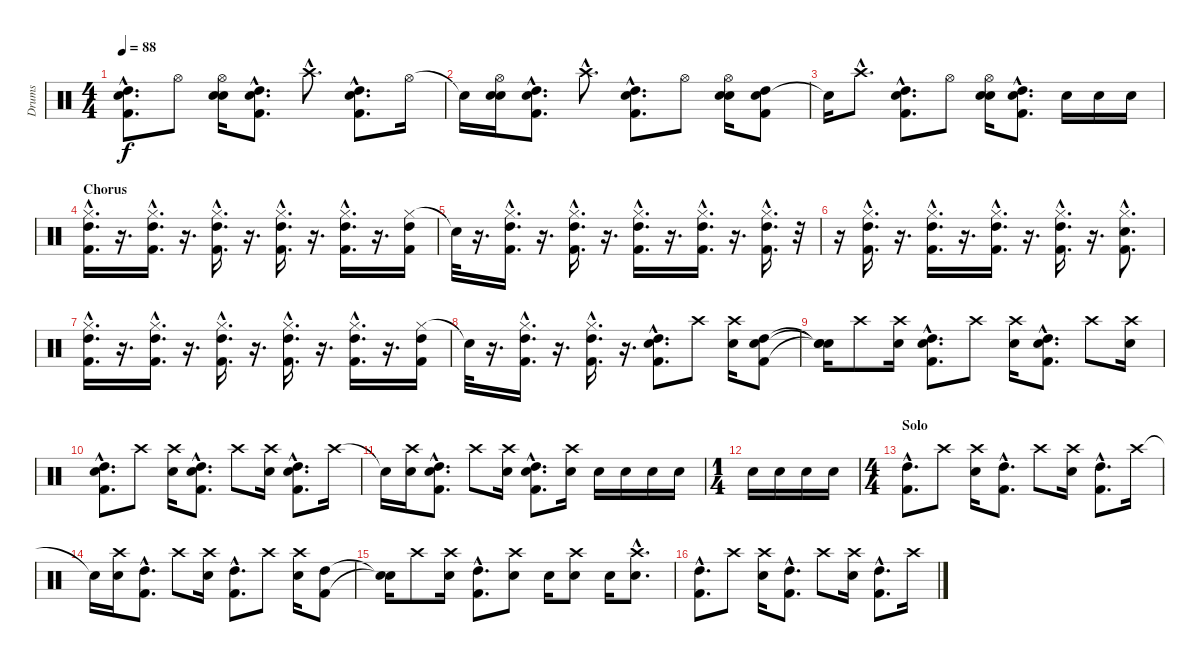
\track ("Drums" "Drums") {instrument percussion}
\staff {score}
\articulation defaults
\ts (4 4)
\tempo 88
\clef neutral
\ks c
("Electric Snare (hit)"{hac} "High Tom (hit)"{hac} "Kick (hit) 2"{hac}).8{d dy f} "Hi-Hat (open)".8 ("Hi-Hat (open)" "Electric Snare (hit)" "Electric Snare (hit)").16 ("Electric Snare (hit)"{hac} "High Tom (hit)"{hac} "Kick (hit) 2"{hac}).8{d} "Crash high (hit)"{hac}.8{d} ("Electric Snare (hit)"{hac} "High Tom (hit)"{hac} "Kick (hit) 2"{hac}).8{d} "Hi-Hat (open)".16 |
"Snare (hit)"{t}.16 ("Hi-Hat (open)" "Electric Snare (hit)" "Electric Snare (hit)").16 ("Electric Snare (hit)"{hac} "High Tom (hit)"{hac} "Kick (hit) 2"{hac}).8{d} "Crash high (hit)"{hac}.8{d} ("Electric Snare (hit)"{hac} "High Tom (hit)"{hac} "Kick (hit) 2"{hac}).8{d} "Hi-Hat (open)".8 ("Hi-Hat (open)" "Electric Snare (hit)" "Electric Snare (hit)").16 ("Electric Snare (hit)" "High Tom (hit)" "Kick (hit) 2").8 |
"Snare (hit)"{t}.16 "Crash high (hit)"{hac}.8{d} ("Electric Snare (hit)"{hac} "High Tom (hit)"{hac} "Kick (hit) 2"{hac}).8{d} "Hi-Hat (open)".8 ("Hi-Hat (open)" "Electric Snare (hit)" "Electric Snare (hit)").16 ("Electric Snare (hit)"{hac} "High Tom (hit)"{hac} "Kick (hit) 2"{hac}).8{d} "Electric Snare (hit)".16 "Electric Snare (hit)".16 "Electric Snare (hit)".16 |
\section ("" "Chorus")
("Hi-Hat (closed)"{hac} "High Tom (hit)"{hac} "Kick (hit) 2"{hac}).16{d} r.16{d} ("Hi-Hat (closed)"{hac} "High Tom (hit)"{hac} "Kick (hit) 2"{hac}).16{d} r.16{d} ("Hi-Hat (closed)"{hac} "High Tom (hit)"{hac} "Kick (hit) 2"{hac}).16{d} r.16{d} ("Hi-Hat (closed)"{hac} "High Tom (hit)"{hac} "Kick (hit) 2"{hac}).16{d} r.16{d} ("Hi-Hat (closed)"{hac} "High Tom (hit)"{hac} "Kick (hit) 2"{hac}).16{d} r.16{d} ("Hi-Hat (closed)" "High Tom (hit)" "Kick (hit) 2").16 |
"Snare (hit)"{t}.32 r.16{d} ("Hi-Hat (closed)"{hac} "High Tom (hit)"{hac} "Kick (hit) 2"{hac}).16{d} r.16{d} ("Hi-Hat (closed)"{hac} "High Tom (hit)"{hac} "Kick (hit) 2"{hac}).16{d} r.16{d} ("Hi-Hat (closed)"{hac} "High Tom (hit)"{hac} "Kick (hit) 2"{hac}).16{d} r.16{d} ("Hi-Hat (closed)"{hac} "High Tom (hit)"{hac} "Kick (hit) 2"{hac}).16{d} r.16{d} ("Hi-Hat (closed)"{hac} "High Tom (hit)"{hac} "Kick (hit) 2"{hac}).16{d} r.32 |
r.16 ("Hi-Hat (closed)"{hac} "High Tom (hit)"{hac} "Kick (hit) 2"{hac}).16{d} r.16{d} ("Hi-Hat (closed)"{hac} "High Tom (hit)"{hac} "Kick (hit) 2"{hac}).16{d} r.16{d} ("Hi-Hat (closed)"{hac} "High Tom (hit)"{hac} "Kick (hit) 2"{hac}).16{d} r.16{d} ("Hi-Hat (closed)"{hac} "High Tom (hit)"{hac} "Kick (hit) 2"{hac}).16{d} r.16{d} ("Hi-Hat (closed)"{hac} "Electric Snare (hit)"{hac} "Kick (hit) 2"{hac}).8{d} |
("Hi-Hat (closed)"{hac} "High Tom (hit)"{hac} "Kick (hit) 2"{hac}).16{d} r.16{d} ("Hi-Hat (closed)"{hac} "High Tom (hit)"{hac} "Kick (hit) 2"{hac}).16{d} r.16{d} ("Hi-Hat (closed)"{hac} "High Tom (hit)"{hac} "Kick (hit) 2"{hac}).16{d} r.16{d} ("Hi-Hat (closed)"{hac} "High Tom (hit)"{hac} "Kick (hit) 2"{hac}).16{d} r.16{d} ("Hi-Hat (closed)"{hac} "High Tom (hit)"{hac} "Kick (hit) 2"{hac}).16{d} r.16{d} ("Hi-Hat (closed)" "High Tom (hit)" "Kick (hit) 2").16 |
"Snare (hit)"{t}.32 r.16{d} ("Hi-Hat (closed)"{hac} "High Tom (hit)"{hac} "Kick (hit) 2"{hac}).16{d} r.16{d} ("Hi-Hat (closed)"{hac} "High Tom (hit)"{hac} "Kick (hit) 2"{hac}).16{d} r.16{d} ("High Tom (hit)"{hac} "Electric Snare (hit)"{hac} "Kick (hit) 2"{hac}).8{d} "Crash high (hit)".8 ("Crash high (hit)" "Electric Snare (hit)").16 ("High Tom (hit)" "Electric Snare (hit)" "Kick (hit) 2").8 |
("Snare (hit)"{t} "Snare (hit)"{t} "Snare (hit)"{t}).16 "Crash high (hit)".8 ("Crash high (hit)" "Electric Snare (hit)").16 ("High Tom (hit)"{hac} "Electric Snare (hit)"{hac} "Kick (hit) 2"{hac}).8{d} "Crash high (hit)".8 ("Crash high (hit)" "Electric Snare (hit)").16 ("High Tom (hit)"{hac} "Electric Snare (hit)"{hac} "Kick (hit) 2"{hac}).8{d} "Crash high (hit)".8 ("Crash high (hit)" "Electric Snare (hit)").16 |
("High Tom (hit)"{hac} "Electric Snare (hit)"{hac} "Kick (hit) 2"{hac}).8{d} "Crash high (hit)".8 ("Crash high (hit)" "Electric Snare (hit)").16 ("High Tom (hit)"{hac} "Electric Snare (hit)"{hac} "Kick (hit) 2"{hac}).8{d} "Crash high (hit)".8 ("Crash high (hit)" "Electric Snare (hit)").16 ("High Tom (hit)"{hac} "Electric Snare (hit)"{hac} "Kick (hit) 2"{hac}).8{d} "Crash high (hit)".16 |
"Snare (hit)"{t}.16 ("Crash high (hit)" "Electric Snare (hit)").16 ("High Tom (hit)"{hac} "Electric Snare (hit)"{hac} "Kick (hit) 2"{hac}).8{d} "Crash high (hit)".8 ("Crash high (hit)" "Electric Snare (hit)").16 ("High Tom (hit)"{hac} "Electric Snare (hit)"{hac} "Kick (hit) 2"{hac}).8{d} ("Crash high (hit)" "Electric Snare (hit)").16 "Electric Snare (hit)".16 "Electric Snare (hit)".16 "Electric Snare (hit)".16 "Electric Snare (hit)".16 |
\ts (1 4)
"Electric Snare (hit)".16 "Electric Snare (hit)".16 "Electric Snare (hit)".16 "Electric Snare (hit)".16 |
\ts (4 4)
\section ("" "Solo")
("High Tom (hit)"{hac} "Kick (hit) 2"{hac}).8{d} "Crash high (hit)".8 ("Crash high (hit)" "Electric Snare (hit)").16 ("High Tom (hit)"{hac} "Kick (hit) 2"{hac}).8{d} "Crash high (hit)".8 ("Crash high (hit)" "Electric Snare (hit)").16 ("High Tom (hit)"{hac} "Kick (hit) 2"{hac}).8{d} "Crash high (hit)".16 |
"Snare (hit)"{t}.16 ("Crash high (hit)" "Electric Snare (hit)").16 ("High Tom (hit)"{hac} "Kick (hit) 2"{hac}).8{d} "Crash high (hit)".8 ("Crash high (hit)" "Electric Snare (hit)").16 ("High Tom (hit)"{hac} "Kick (hit) 2"{hac}).8{d} "Crash high (hit)".8 ("Crash high (hit)" "Electric Snare (hit)").16 ("High Tom (hit)" "Kick (hit) 2").8 |
("Snare (hit)"{t} "Snare (hit)"{t}).16 "Crash high (hit)".8 ("Crash high (hit)" "Electric Snare (hit)").16 ("High Tom (hit)"{hac} "Kick (hit) 2"{hac}).8{d} ("Crash high (hit)" "Electric Snare (hit)").8 "Electric Snare (hit)".16 ("Crash high (hit)" "Electric Snare (hit)").8 "Electric Snare (hit)".16 ("Crash high (hit)"{hac} "Electric Snare (hit)"{hac}).8{d} |
("High Tom (hit)"{hac} "Kick (hit) 2"{hac}).8{d} "Crash high (hit)".8 ("Crash high (hit)" "Electric Snare (hit)").16 ("High Tom (hit)"{hac} "Kick (hit) 2"{hac}).8{d} "Crash high (hit)".8 ("Crash high (hit)" "Electric Snare (hit)").16 ("High Tom (hit)"{hac} "Kick (hit) 2"{hac}).8{d} "Crash high (hit)".16
